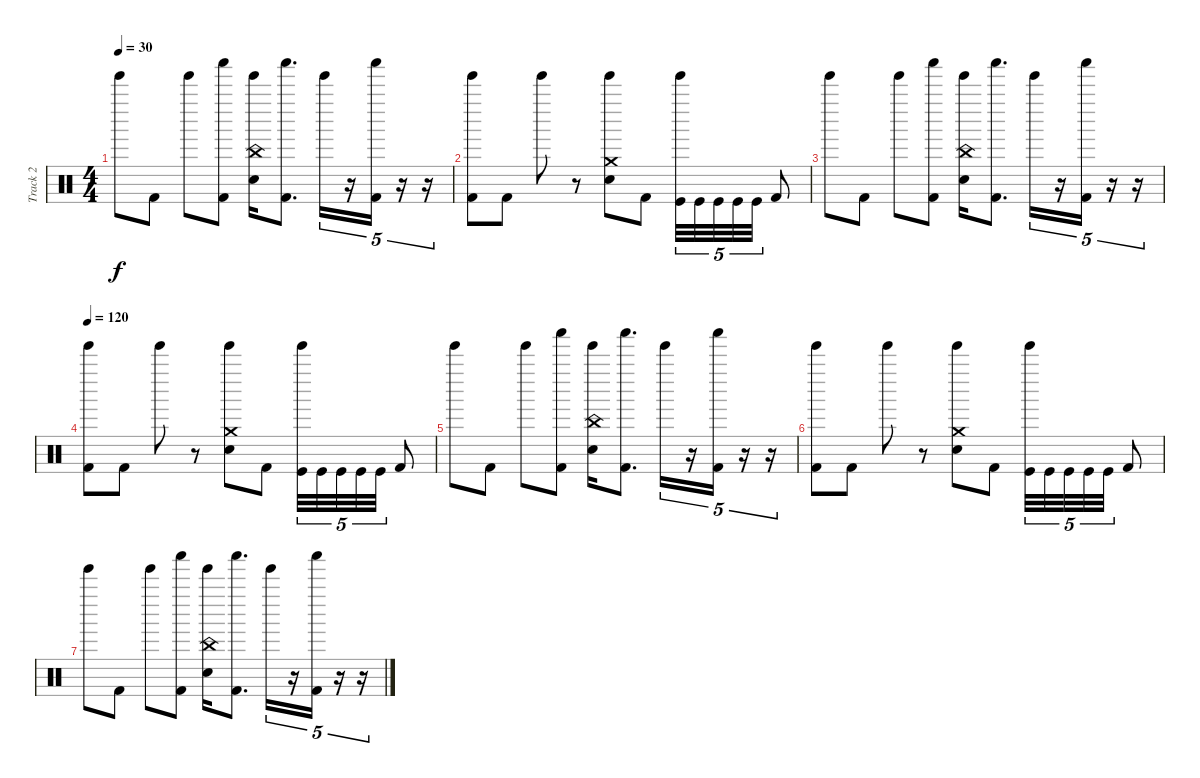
\track ("Track 2" "Track 2") {instrument percussion}
\staff {score}
\articulation defaults
\ts (4 4)
\tempo 30
\clef neutral
\ks c "Tinkle Bell (hit)".8{dy f} "Kick (hit) 2".8 "Tinkle Bell (hit)".8
("Shaker (hit)" "Kick (hit) 2").8 ("Tinkle Bell (hit)" "Electric Snare (hit)" "China (hit)").16 ("Shaker (hit)" "Kick (hit) 2").8{d} "Tinkle Bell (hit)".16{tu (5 4)} r.16{tu (5 4)} ("Shaker (hit)" "Kick (hit) 2").16{tu (5 4)} r.16{tu (5 4)} r.16{tu (5 4)} |
("Tinkle Bell (hit)" "Kick (hit) 2").8 "Kick (hit) 2".8 "Tinkle Bell (hit)".8 r.8 ("Tinkle Bell (hit)" "Electric Snare (hit)" "Crash medium (hit)").8 "Kick (hit) 2".8 ("Tinkle Bell (hit)" "Kick (hit)").32{tu (5 4)} "Kick (hit)".32{tu (5 4)} "Kick (hit)".32{tu (5 4)} "Kick (hit)".32{tu (5 4)} "Kick (hit)".32{tu (5 4)} "Kick (hit) 2".8 |
"Tinkle Bell (hit)".8 "Kick (hit) 2".8 "Tinkle Bell (hit)".8 ("Shaker (hit)" "Kick (hit) 2").8 ("Tinkle Bell (hit)" "Electric Snare (hit)" "China (hit)").16 ("Shaker (hit)" "Kick (hit) 2").8{d} "Tinkle Bell (hit)".16{tu (5 4)} r.16{tu (5 4)} ("Shaker (hit)" "Kick (hit) 2").16{tu (5 4)} r.16{tu (5 4)} r.16{tu (5 4)} |
\tempo 120
("Tinkle Bell (hit)" "Kick (hit) 2").8 "Kick (hit) 2".8 "Tinkle Bell (hit)".8 r.8 ("Tinkle Bell (hit)" "Electric Snare (hit)" "Crash medium (hit)").8 "Kick (hit) 2".8 ("Tinkle Bell (hit)" "Kick (hit)").32{tu (5 4)} "Kick (hit)".32{tu (5 4)} "Kick (hit)".32{tu (5 4)} "Kick (hit)".32{tu (5 4)} "Kick (hit)".32{tu (5 4)} "Kick (hit) 2".8 |
"Tinkle Bell (hit)".8 "Kick (hit) 2".8 "Tinkle Bell (hit)".8 ("Shaker (hit)" "Kick (hit) 2").8 ("Tinkle Bell (hit)" "Electric Snare (hit)" "China (hit)").16 ("Shaker (hit)" "Kick (hit) 2").8{d} "Tinkle Bell (hit)".16{tu (5 4)} r.16{tu (5 4)} ("Shaker (hit)" "Kick (hit) 2").16{tu (5 4)} r.16{tu (5 4)} r.16{tu (5 4)} |
("Tinkle Bell (hit)" "Kick (hit) 2").8 "Kick (hit) 2".8 "Tinkle Bell (hit)".8 r.8 ("Tinkle Bell (hit)" "Electric Snare (hit)" "Crash medium (hit)").8 "Kick (hit) 2".8 ("Tinkle Bell (hit)" "Kick (hit)").32{tu (5 4)} "Kick (hit)".32{tu (5 4)} "Kick (hit)".32{tu (5 4)} "Kick (hit)".32{tu (5 4)} "Kick (hit)".32{tu (5 4)} "Kick (hit) 2".8 |
"Tinkle Bell (hit)".8 "Kick (hit) 2".8 "Tinkle Bell (hit)".8 ("Shaker (hit)" "Kick (hit) 2").8 ("Tinkle Bell (hit)" "Electric Snare (hit)" "China (hit)").16 ("Shaker (hit)" "Kick (hit) 2").8{d} "Tinkle Bell (hit)".16{tu (5 4)} r.16{tu (5 4)} ("Shaker (hit)" "Kick (hit) 2").16{tu (5 4)} r.16{tu (5 4)} r.16{tu (5 4)}
